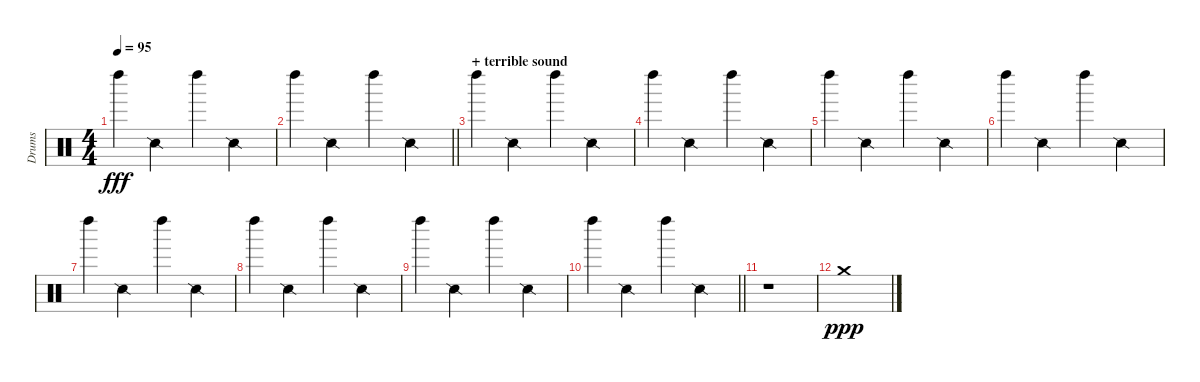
\track ("Drums" "Drums") {instrument percussion}
\staff {score}
\articulation defaults
\ts (4 4)
\tempo 95
\clef neutral
\ks c "Left Maraca (hit)".4{dy fff} "Snare (side stick) 2".4 "Left Maraca (hit)".4 "Snare (side stick) 2".4
|
\barLineRight lightlight "Left Maraca (hit)".4 "Snare (side stick) 2".4 "Left Maraca (hit)".4 "Snare (side stick) 2".4
|
\section ("" "+ terrible sound")
"Left Maraca (hit)".4 "Snare (side stick) 2".4 "Left Maraca (hit)".4 "Snare (side stick) 2".4 |
"Left Maraca (hit)".4 "Snare (side stick) 2".4 "Left Maraca (hit)".4 "Snare (side stick) 2".4 |
"Left Maraca (hit)".4 "Snare (side stick) 2".4 "Left Maraca (hit)".4 "Snare (side stick) 2".4 |
"Left Maraca (hit)".4 "Snare (side stick) 2".4 "Left Maraca (hit)".4 "Snare (side stick) 2".4 |
"Left Maraca (hit)".4 "Snare (side stick) 2".4 "Left Maraca (hit)".4 "Snare (side stick) 2".4 |
"Left Maraca (hit)".4 "Snare (side stick) 2".4 "Left Maraca (hit)".4 "Snare (side stick) 2".4 |
"Left Maraca (hit)".4 "Snare (side stick) 2".4 "Left Maraca (hit)".4 "Snare (side stick) 2".4 |
\barLineRight lightlight "Left Maraca (hit)".4 "Snare (side stick) 2".4 "Left Maraca (hit)".4 "Snare (side stick) 2".4
|
r.1 |
"Crash medium (hit)".1{dy ppp volume 16}
